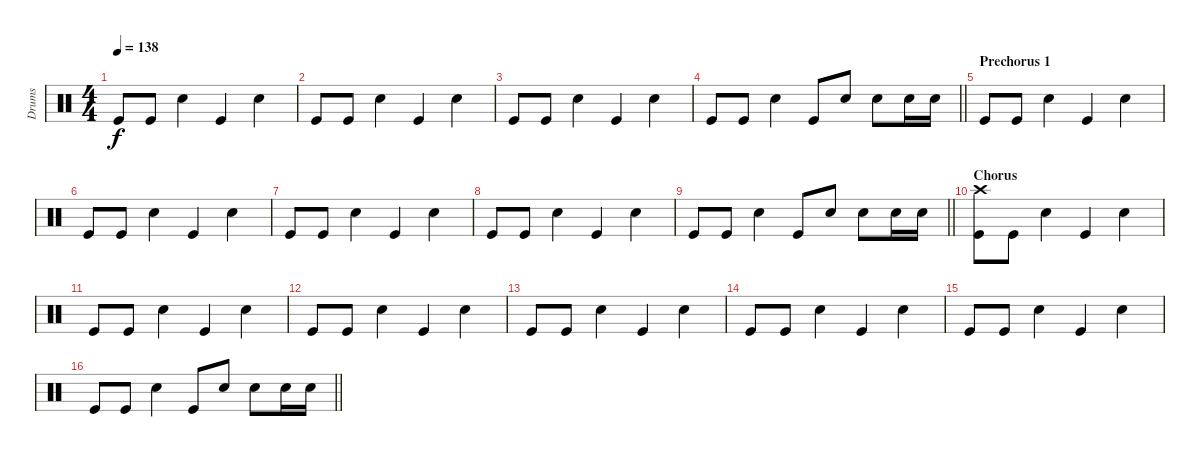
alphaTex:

\track ("Drums" "Drums") {instrument percussion}
\staff {score}
\articulation defaults
\ts (4 4)
\tempo 138
\clef neutral
\ks c "Kick (hit)".8{dy f} "Kick (hit)".8 "Snare (hit) 2".4 "Kick (hit)".4 "Snare (hit) 2".4
|
"Kick (hit)".8 "Kick (hit)".8 "Snare (hit) 2".4 "Kick (hit)".4 "Snare (hit) 2".4 |
"Kick (hit)".8 "Kick (hit)".8 "Snare (hit) 2".4 "Kick (hit)".4 "Snare (hit) 2".4 |
\barLineRight lightlight "Kick (hit)".8 "Kick (hit)".8 "Snare (hit) 2".4 "Kick (hit)".8 "Snare (hit) 2".8 "Snare (hit) 2".8 "Snare (hit) 2".16 "Snare (hit) 2".16
|
\section ("" "Prechorus 1")
"Kick (hit)".8 "Kick (hit)".8 "Snare (hit) 2".4 "Kick (hit)".4 "Snare (hit) 2".4 |
"Kick (hit)".8 "Kick (hit)".8 "Snare (hit) 2".4 "Kick (hit)".4 "Snare (hit) 2".4 |
"Kick (hit)".8 "Kick (hit)".8 "Snare (hit) 2".4 "Kick (hit)".4 "Snare (hit) 2".4 |
"Kick (hit)".8 "Kick (hit)".8 "Snare (hit) 2".4 "Kick (hit)".4 "Snare (hit) 2".4 |
\barLineRight lightlight "Kick (hit)".8 "Kick (hit)".8 "Snare (hit) 2".4 "Kick (hit)".8 "Snare (hit) 2".8 "Snare (hit) 2".8 "Snare (hit) 2".16 "Snare (hit) 2".16
|
\section ("" "Chorus")
("Crash high (hit)" "Kick (hit)").8 "Kick (hit)".8 "Snare (hit) 2".4 "Kick (hit)".4 "Snare (hit) 2".4 |
"Kick (hit)".8 "Kick (hit)".8 "Snare (hit) 2".4 "Kick (hit)".4 "Snare (hit) 2".4 |
"Kick (hit)".8 "Kick (hit)".8 "Snare (hit) 2".4 "Kick (hit)".4 "Snare (hit) 2".4 |
"Kick (hit)".8 "Kick (hit)".8 "Snare (hit) 2".4 "Kick (hit)".4 "Snare (hit) 2".4 |
"Kick (hit)".8 "Kick (hit)".8 "Snare (hit) 2".4 "Kick (hit)".4 "Snare (hit) 2".4 |
"Kick (hit)".8 "Kick (hit)".8 "Snare (hit) 2".4 "Kick (hit)".4 "Snare (hit) 2".4 |
\barLineRight lightlight "Kick (hit)".8 "Kick (hit)".8 "Snare (hit) 2".4 "Kick (hit)".8 "Snare (hit) 2".8 "Snare (hit) 2".8 "Snare (hit) 2".16 "Snare (hit) 2".16
